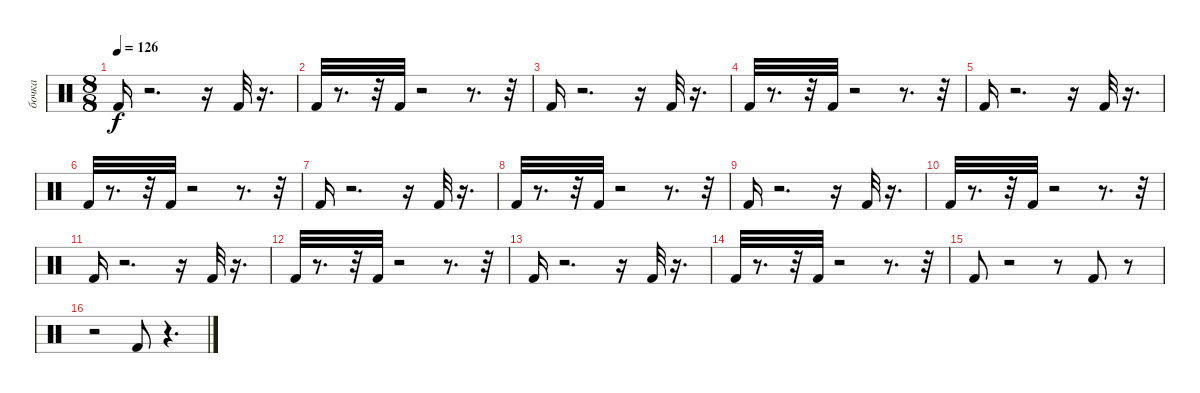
\track ("бочка" "бочка") {instrument percussion}
\staff {score}
\articulation defaults
\ts (8 8)
\tempo 126
\clef neutral
\ks c "Kick (hit) 2".16{dy f}
r.2{d} r.16 "Kick (hit) 2".32 r.16{d} |
"Kick (hit) 2".32 r.8{d} r.32 "Kick (hit) 2".32 r.2 r.8{d} r.32 |
"Kick (hit) 2".16 r.2{d} r.16 "Kick (hit) 2".32 r.16{d} |
"Kick (hit) 2".32 r.8{d} r.32 "Kick (hit) 2".32 r.2 r.8{d} r.32 |
"Kick (hit) 2".16 r.2{d} r.16 "Kick (hit) 2".32 r.16{d} |
"Kick (hit) 2".32 r.8{d} r.32 "Kick (hit) 2".32 r.2 r.8{d} r.32 |
"Kick (hit) 2".16 r.2{d} r.16 "Kick (hit) 2".32 r.16{d} |
"Kick (hit) 2".32 r.8{d} r.32 "Kick (hit) 2".32 r.2 r.8{d} r.32 |
"Kick (hit) 2".16 r.2{d} r.16 "Kick (hit) 2".32 r.16{d} |
"Kick (hit) 2".32 r.8{d} r.32 "Kick (hit) 2".32 r.2 r.8{d} r.32 |
"Kick (hit) 2".16 r.2{d} r.16 "Kick (hit) 2".32 r.16{d} |
"Kick (hit) 2".32 r.8{d} r.32 "Kick (hit) 2".32 r.2 r.8{d} r.32 |
"Kick (hit) 2".16 r.2{d} r.16 "Kick (hit) 2".32 r.16{d} |
"Kick (hit) 2".32 r.8{d} r.32 "Kick (hit) 2".32 r.2 r.8{d} r.32 |
"Kick (hit) 2".8 r.2 r.8 "Kick (hit) 2".8 r.8 |
r.2 "Kick (hit) 2".8 r.4{d}
